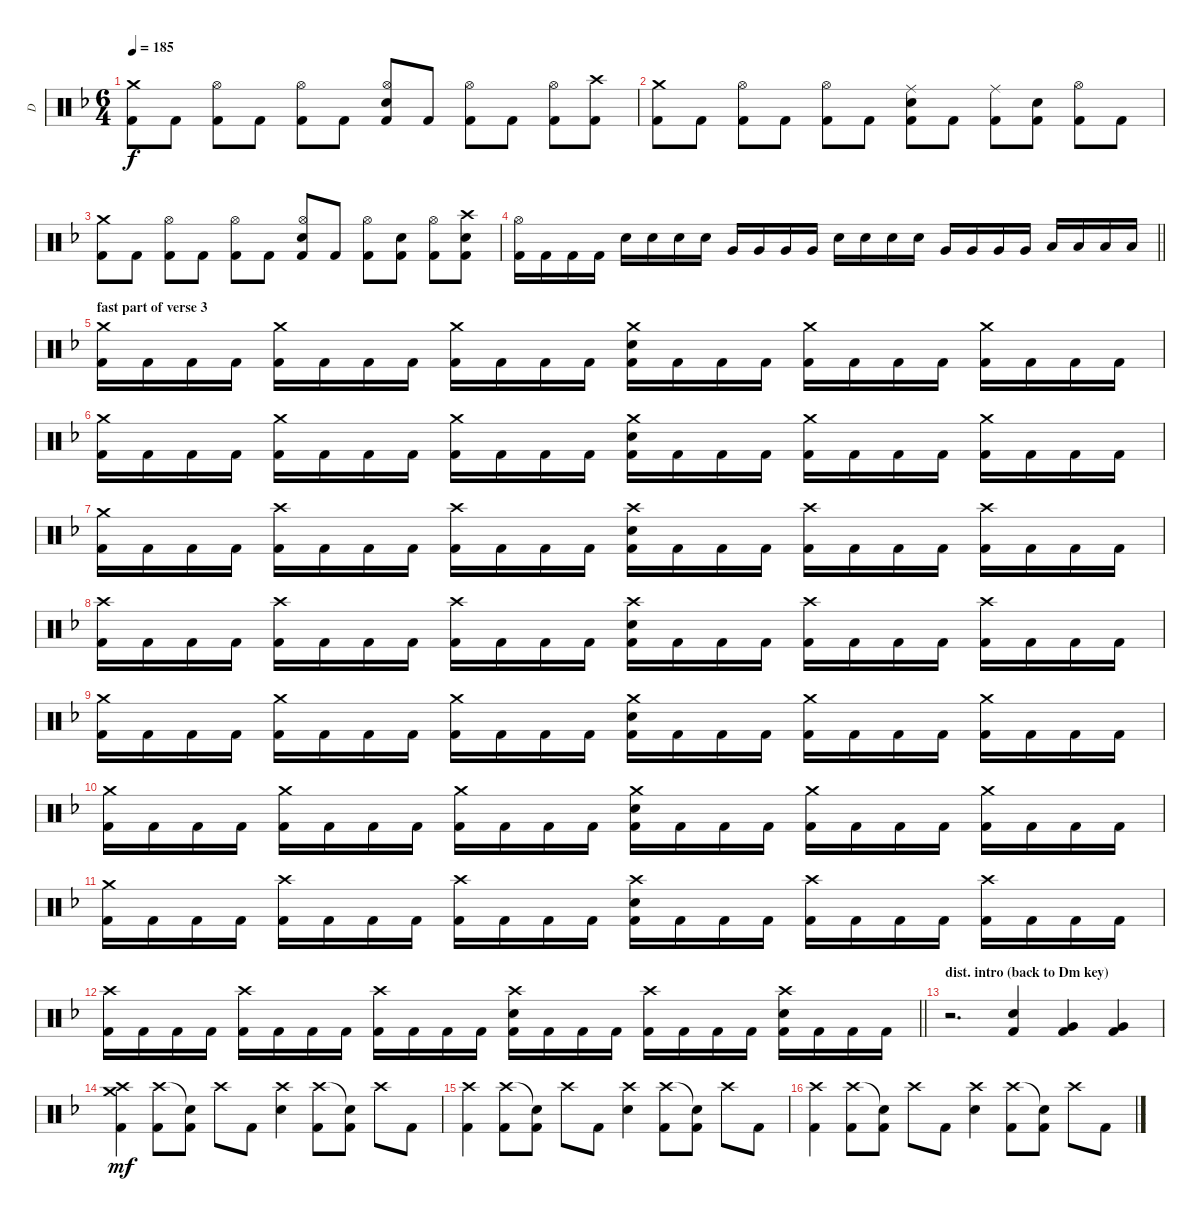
\track ("D" "D") {instrument percussion}
\staff {score}
\articulation defaults
\ts (6 4)
\tempo 185
\clef neutral
\ks dminor
("Crash medium (hit)" "Kick (hit) 2").8{dy f} "Kick (hit) 2".8 ("Hi-Hat (open)" "Kick (hit) 2").8 "Kick (hit) 2".8 ("Hi-Hat (open)" "Kick (hit) 2").8 "Kick (hit) 2".8 ("Hi-Hat (open)" "Snare (hit) 2" "Kick (hit) 2").8 "Kick (hit) 2".8 ("Hi-Hat (open)" "Kick (hit) 2").8 "Kick (hit) 2".8 ("Hi-Hat (open)" "Kick (hit) 2").8 ("Crash high (hit)" "Kick (hit) 2").8 |
("Crash medium (hit)" "Kick (hit) 2").8 "Kick (hit) 2".8 ("Hi-Hat (open)" "Kick (hit) 2").8 "Kick (hit) 2".8 ("Hi-Hat (open)" "Kick (hit) 2").8 "Kick (hit) 2".8 ("Ride (middle)" "Snare (hit) 2" "Kick (hit) 2").8 "Kick (hit) 2".8 ("Ride (middle)" "Kick (hit) 2").8 ("Snare (hit) 2" "Kick (hit) 2").8 ("Hi-Hat (open)" "Kick (hit) 2").8 "Kick (hit) 2".8 |
("Crash medium (hit)" "Kick (hit) 2").8 "Kick (hit) 2".8 ("Hi-Hat (open)" "Kick (hit) 2").8 "Kick (hit) 2".8 ("Hi-Hat (open)" "Kick (hit) 2").8 "Kick (hit) 2".8 ("Hi-Hat (open)" "Snare (hit) 2" "Kick (hit) 2").8 "Kick (hit) 2".8 ("Hi-Hat (open)" "Kick (hit) 2").8 ("Snare (hit) 2" "Kick (hit) 2").8 ("Hi-Hat (open)" "Kick (hit) 2").8 ("Crash high (hit)" "Snare (hit) 2" "Kick (hit) 2").8 |
\barLineRight lightlight
("Hi-Hat (open)" "Kick (hit) 2").16 "Kick (hit) 2".16 "Kick (hit) 2".16 "Kick (hit) 2".16 "Snare (hit) 2".16 "Snare (hit) 2".16 "Snare (hit) 2".16 "Snare (hit) 2".16 "Very Low Tom (hit)".16 "Very Low Tom (hit)".16 "Very Low Tom (hit)".16 "Very Low Tom (hit)".16 "Snare (hit) 2".16 "Snare (hit) 2".16 "Snare (hit) 2".16 "Snare (hit) 2".16 "Very Low Tom (hit)".16 "Very Low Tom (hit)".16 "Very Low Tom (hit)".16 "Very Low Tom (hit)".16 "Low Floor Tom (hit)".16 "Low Floor Tom (hit)".16 "Low Floor Tom (hit)".16 "Low Floor Tom (hit)".16 |
\section ("" "fast part of verse 3")
("Crash medium (hit)" "Kick (hit) 2").16 "Kick (hit) 2".16 "Kick (hit) 2".16 "Kick (hit) 2".16 ("Crash medium (hit)" "Kick (hit) 2").16 "Kick (hit) 2".16 "Kick (hit) 2".16 "Kick (hit) 2".16 ("Crash medium (hit)" "Kick (hit) 2").16 "Kick (hit) 2".16 "Kick (hit) 2".16 "Kick (hit) 2".16 ("Crash medium (hit)" "Snare (hit) 2" "Kick (hit) 2").16 "Kick (hit) 2".16 "Kick (hit) 2".16 "Kick (hit) 2".16 ("Crash medium (hit)" "Kick (hit) 2").16 "Kick (hit) 2".16 "Kick (hit) 2".16 "Kick (hit) 2".16 ("Crash medium (hit)" "Kick (hit) 2").16 "Kick (hit) 2".16 "Kick (hit) 2".16 "Kick (hit) 2".16 |
("Crash medium (hit)" "Kick (hit) 2").16 "Kick (hit) 2".16 "Kick (hit) 2".16 "Kick (hit) 2".16 ("Crash medium (hit)" "Kick (hit) 2").16 "Kick (hit) 2".16 "Kick (hit) 2".16 "Kick (hit) 2".16 ("Crash medium (hit)" "Kick (hit) 2").16 "Kick (hit) 2".16 "Kick (hit) 2".16 "Kick (hit) 2".16 ("Crash medium (hit)" "Snare (hit) 2" "Kick (hit) 2").16 "Kick (hit) 2".16 "Kick (hit) 2".16 "Kick (hit) 2".16 ("Crash medium (hit)" "Kick (hit) 2").16 "Kick (hit) 2".16 "Kick (hit) 2".16 "Kick (hit) 2".16 ("Crash medium (hit)" "Kick (hit) 2").16 "Kick (hit) 2".16 "Kick (hit) 2".16 "Kick (hit) 2".16 |
("Crash medium (hit)" "Kick (hit) 2").16 "Kick (hit) 2".16 "Kick (hit) 2".16 "Kick (hit) 2".16 ("Crash high (hit)" "Kick (hit) 2").16 "Kick (hit) 2".16 "Kick (hit) 2".16 "Kick (hit) 2".16 ("Crash high (hit)" "Kick (hit) 2").16 "Kick (hit) 2".16 "Kick (hit) 2".16 "Kick (hit) 2".16 ("Crash high (hit)" "Snare (hit) 2" "Kick (hit) 2").16 "Kick (hit) 2".16 "Kick (hit) 2".16 "Kick (hit) 2".16 ("Crash high (hit)" "Kick (hit) 2").16 "Kick (hit) 2".16 "Kick (hit) 2".16 "Kick (hit) 2".16 ("Crash high (hit)" "Kick (hit) 2").16 "Kick (hit) 2".16 "Kick (hit) 2".16 "Kick (hit) 2".16 |
("Crash high (hit)" "Kick (hit) 2").16 "Kick (hit) 2".16 "Kick (hit) 2".16 "Kick (hit) 2".16 ("Crash high (hit)" "Kick (hit) 2").16 "Kick (hit) 2".16 "Kick (hit) 2".16 "Kick (hit) 2".16 ("Crash high (hit)" "Kick (hit) 2").16 "Kick (hit) 2".16 "Kick (hit) 2".16 "Kick (hit) 2".16 ("Crash high (hit)" "Snare (hit) 2" "Kick (hit) 2").16 "Kick (hit) 2".16 "Kick (hit) 2".16 "Kick (hit) 2".16 ("Crash high (hit)" "Kick (hit) 2").16 "Kick (hit) 2".16 "Kick (hit) 2".16 "Kick (hit) 2".16 ("Crash high (hit)" "Kick (hit) 2").16 "Kick (hit) 2".16 "Kick (hit) 2".16 "Kick (hit) 2".16 |
("Crash medium (hit)" "Kick (hit) 2").16 "Kick (hit) 2".16 "Kick (hit) 2".16 "Kick (hit) 2".16 ("Crash medium (hit)" "Kick (hit) 2").16 "Kick (hit) 2".16 "Kick (hit) 2".16 "Kick (hit) 2".16 ("Crash medium (hit)" "Kick (hit) 2").16 "Kick (hit) 2".16 "Kick (hit) 2".16 "Kick (hit) 2".16 ("Crash medium (hit)" "Snare (hit) 2" "Kick (hit) 2").16 "Kick (hit) 2".16 "Kick (hit) 2".16 "Kick (hit) 2".16 ("Crash medium (hit)" "Kick (hit) 2").16 "Kick (hit) 2".16 "Kick (hit) 2".16 "Kick (hit) 2".16 ("Crash medium (hit)" "Kick (hit) 2").16 "Kick (hit) 2".16 "Kick (hit) 2".16 "Kick (hit) 2".16 |
("Crash medium (hit)" "Kick (hit) 2").16 "Kick (hit) 2".16 "Kick (hit) 2".16 "Kick (hit) 2".16 ("Crash medium (hit)" "Kick (hit) 2").16 "Kick (hit) 2".16 "Kick (hit) 2".16 "Kick (hit) 2".16 ("Crash medium (hit)" "Kick (hit) 2").16 "Kick (hit) 2".16 "Kick (hit) 2".16 "Kick (hit) 2".16 ("Crash medium (hit)" "Snare (hit) 2" "Kick (hit) 2").16 "Kick (hit) 2".16 "Kick (hit) 2".16 "Kick (hit) 2".16 ("Crash medium (hit)" "Kick (hit) 2").16 "Kick (hit) 2".16 "Kick (hit) 2".16 "Kick (hit) 2".16 ("Crash medium (hit)" "Kick (hit) 2").16 "Kick (hit) 2".16 "Kick (hit) 2".16 "Kick (hit) 2".16 |
("Crash medium (hit)" "Kick (hit) 2").16 "Kick (hit) 2".16 "Kick (hit) 2".16 "Kick (hit) 2".16 ("Crash high (hit)" "Kick (hit) 2").16 "Kick (hit) 2".16 "Kick (hit) 2".16 "Kick (hit) 2".16 ("Crash high (hit)" "Kick (hit) 2").16 "Kick (hit) 2".16 "Kick (hit) 2".16 "Kick (hit) 2".16 ("Crash high (hit)" "Snare (hit) 2" "Kick (hit) 2").16 "Kick (hit) 2".16 "Kick (hit) 2".16 "Kick (hit) 2".16 ("Crash high (hit)" "Kick (hit) 2").16 "Kick (hit) 2".16 "Kick (hit) 2".16 "Kick (hit) 2".16 ("Crash high (hit)" "Kick (hit) 2").16 "Kick (hit) 2".16 "Kick (hit) 2".16 "Kick (hit) 2".16 |
\barLineRight lightlight
("Crash high (hit)" "Kick (hit) 2").16 "Kick (hit) 2".16 "Kick (hit) 2".16 "Kick (hit) 2".16 ("Crash high (hit)" "Kick (hit) 2").16 "Kick (hit) 2".16 "Kick (hit) 2".16 "Kick (hit) 2".16 ("Crash high (hit)" "Kick (hit) 2").16 "Kick (hit) 2".16 "Kick (hit) 2".16 "Kick (hit) 2".16 ("Crash high (hit)" "Snare (hit) 2" "Kick (hit) 2").16 "Kick (hit) 2".16 "Kick (hit) 2".16 "Kick (hit) 2".16 ("Crash high (hit)" "Kick (hit) 2").16 "Kick (hit) 2".16 "Kick (hit) 2".16 "Kick (hit) 2".16 ("Crash high (hit)" "Snare (hit) 2" "Kick (hit) 2").16 "Kick (hit) 2".16 "Kick (hit) 2".16 "Kick (hit) 2".16 |
\section ("" "dist. intro (back to Dm key)")
r.2{d} ("Snare (hit) 2" "Kick (hit) 2").4 ("Very Low Tom (hit)" "Kick (hit) 2").4 ("Very Low Tom (hit)" "Kick (hit) 2").4 |
("Crash high (hit)" "Crash medium (hit)" "Kick (hit) 2").4{dy mf} ("Crash high (hit)" "Kick (hit) 2").8 ("Snare (hit)"{t} "Kick (hit) 2").8 "Crash high (hit)".8 "Kick (hit) 2".8 ("Crash high (hit)" "Snare (hit) 2").4 ("Crash high (hit)" "Kick (hit) 2").8 ("Snare (hit)"{t} "Kick (hit) 2").8 "Crash high (hit)".8 "Kick (hit) 2".8 |
("Crash high (hit)" "Kick (hit) 2").4 ("Crash high (hit)" "Kick (hit) 2").8 ("Snare (hit)"{t} "Kick (hit) 2").8 "Crash high (hit)".8 "Kick (hit) 2".8 ("Crash high (hit)" "Snare (hit) 2").4 ("Crash high (hit)" "Kick (hit) 2").8 ("Snare (hit)"{t} "Kick (hit) 2").8 "Crash high (hit)".8 "Kick (hit) 2".8 |
("Crash high (hit)" "Kick (hit) 2").4 ("Crash high (hit)" "Kick (hit) 2").8 ("Snare (hit)"{t} "Kick (hit) 2").8 "Crash high (hit)".8 "Kick (hit) 2".8 ("Crash high (hit)" "Snare (hit) 2").4 ("Crash high (hit)" "Kick (hit) 2").8 ("Snare (hit)"{t} "Kick (hit) 2").8 "Crash high (hit)".8 "Kick (hit) 2".8
